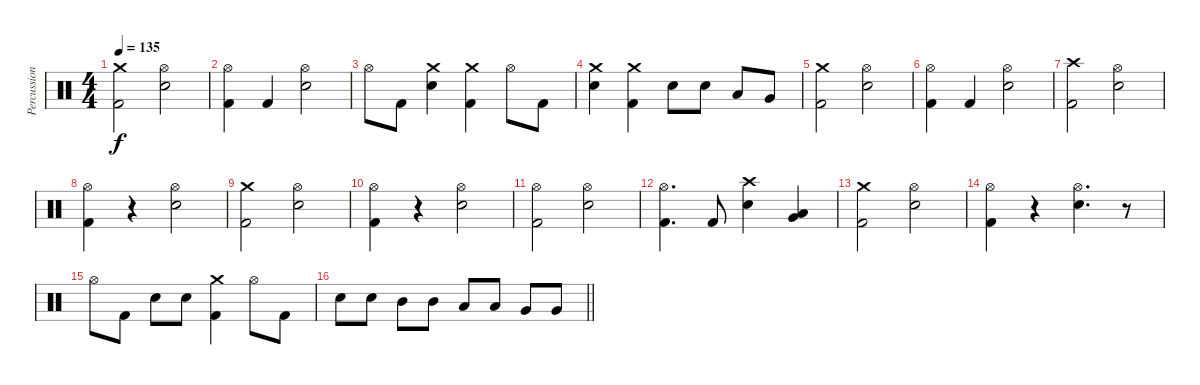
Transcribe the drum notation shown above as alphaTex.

\track ("Percussion" "Percussion") {instrument percussion}
\staff {score}
\articulation defaults
\ts (4 4)
\tempo 135
\clef neutral
\ks c
("Crash medium (hit)" "Kick (hit) 2").2{dy f} ("Hi-Hat (open)" "Electric Snare (hit)").2 |
("Hi-Hat (open)" "Kick (hit) 2").4 "Kick (hit) 2".4 ("Hi-Hat (open)" "Electric Snare (hit)").2 |
"Hi-Hat (open)".8 "Kick (hit) 2".8 ("Crash medium (hit)" "Electric Snare (hit)").4 ("Crash medium (hit)" "Kick (hit) 2").4 "Hi-Hat (open)".8 "Kick (hit) 2".8 |
("Crash medium (hit)" "Electric Snare (hit)").4 ("Crash medium (hit)" "Kick (hit) 2").4 "Electric Snare (hit)".8 "Electric Snare (hit)".8 "Low Tom (hit)".8 "Very Low Tom (hit)".8 |
("Crash medium (hit)" "Kick (hit) 2").2 ("Hi-Hat (open)" "Electric Snare (hit)").2 |
("Hi-Hat (open)" "Kick (hit) 2").4 "Kick (hit) 2".4 ("Hi-Hat (open)" "Electric Snare (hit)").2 |
("Crash high (hit)" "Kick (hit) 2").2 ("Hi-Hat (open)" "Electric Snare (hit)").2 |
("Hi-Hat (open)" "Kick (hit) 2").4 r.4 ("Hi-Hat (open)" "Electric Snare (hit)").2 |
("Crash medium (hit)" "Kick (hit) 2").2 ("Hi-Hat (open)" "Electric Snare (hit)").2 |
("Hi-Hat (open)" "Kick (hit) 2").4 r.4 ("Hi-Hat (open)" "Electric Snare (hit)").2 |
("Hi-Hat (open)" "Kick (hit) 2").2 ("Hi-Hat (open)" "Electric Snare (hit)").2 |
("Hi-Hat (open)" "Kick (hit) 2").4{d} "Kick (hit) 2".8 ("Crash high (hit)" "Electric Snare (hit)").4 ("Low Tom (hit)" "Very Low Tom (hit)").4 |
("Crash medium (hit)" "Kick (hit) 2").2 ("Hi-Hat (open)" "Electric Snare (hit)").2 |
("Hi-Hat (open)" "Kick (hit) 2").4 r.4 ("Hi-Hat (open)" "Electric Snare (hit)").4{d} r.8 |
"Hi-Hat (open)".8 "Kick (hit) 2".8 "Electric Snare (hit)".8 "Electric Snare (hit)".8 ("Crash medium (hit)" "Kick (hit) 2").4 "Hi-Hat (open)".8 "Kick (hit) 2".8 |
\barLineRight lightlight "Electric Snare (hit)".8 "Electric Snare (hit)".8 "Mid Tom (hit)".8 "Mid Tom (hit)".8 "Low Tom (hit)".8 "Low Tom (hit)".8 "Very Low Tom (hit)".8 "Very Low Tom (hit)".8
